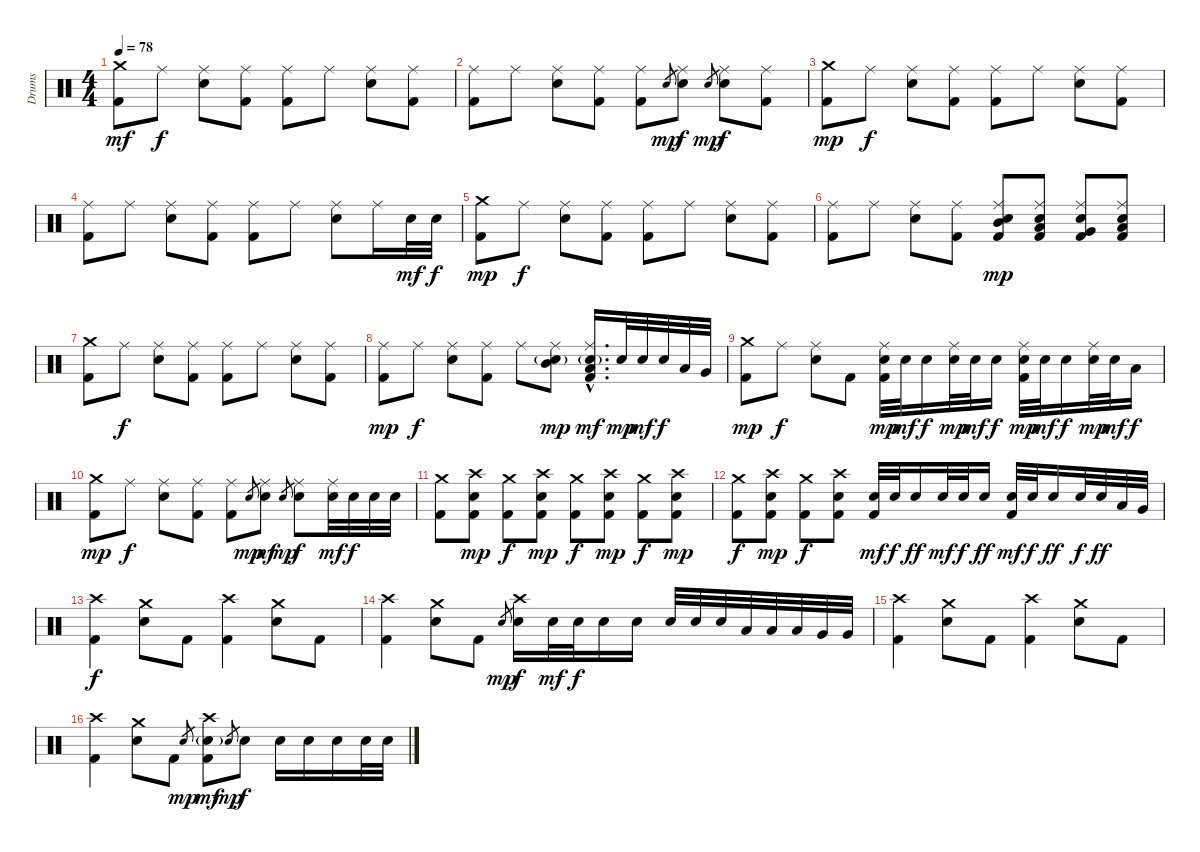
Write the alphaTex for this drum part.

\track ("Drums" "Drums") {instrument percussion}
\staff {score}
\articulation defaults
\ts (4 4)
\tempo 78
\clef neutral
\ks c
("Crash medium (hit)" "Kick (hit) 2").8{dy mf} "Ride (middle)".8{dy f} ("Ride (middle)" "Electric Snare (hit)").8 ("Ride (middle)" "Kick (hit) 2").8 ("Ride (middle)" "Kick (hit) 2").8 "Ride (middle)".8 ("Ride (middle)" "Electric Snare (hit)").8 ("Ride (middle)" "Kick (hit) 2").8 |
("Ride (middle)" "Kick (hit) 2").8 "Ride (middle)".8 ("Ride (middle)" "Electric Snare (hit)").8 ("Ride (middle)" "Kick (hit) 2").8 ("Ride (middle)" "Kick (hit) 2").8 "Electric Snare (hit)".8{gr dy mp} ("Ride (middle)" "Electric Snare (hit)").8{dy f} "Electric Snare (hit)".8{gr dy mp} ("Ride (middle)" "Electric Snare (hit)").8{dy f} ("Ride (middle)" "Kick (hit) 2").8 |
("Crash medium (hit)" "Kick (hit) 2").8{dy mp} "Ride (middle)".8{dy f} ("Ride (middle)" "Electric Snare (hit)").8 ("Ride (middle)" "Kick (hit) 2").8 ("Ride (middle)" "Kick (hit) 2").8 "Ride (middle)".8 ("Ride (middle)" "Electric Snare (hit)").8 ("Ride (middle)" "Kick (hit) 2").8 |
("Ride (middle)" "Kick (hit) 2").8 "Ride (middle)".8 ("Ride (middle)" "Electric Snare (hit)").8 ("Ride (middle)" "Kick (hit) 2").8 ("Ride (middle)" "Kick (hit) 2").8 "Ride (middle)".8 ("Ride (middle)" "Electric Snare (hit)").8 "Ride (middle)".16 "Electric Snare (hit)".32{dy mf} "Electric Snare (hit)".32{dy f} |
("Crash medium (hit)" "Kick (hit) 2").8{dy mp} "Ride (middle)".8{dy f} ("Ride (middle)" "Electric Snare (hit)").8 ("Ride (middle)" "Kick (hit) 2").8 ("Ride (middle)" "Kick (hit) 2").8 "Ride (middle)".8 ("Ride (middle)" "Electric Snare (hit)").8 ("Ride (middle)" "Kick (hit) 2").8 |
("Ride (middle)" "Kick (hit) 2").8{volume 10} "Ride (middle)".8 ("Ride (middle)" "Electric Snare (hit)").8 ("Ride (middle)" "Kick (hit) 2").8 ("Ride (middle)" "Mid Tom (hit)" "Electric Snare (hit)" "Kick (hit) 2").8{dy mp} ("Ride (middle)" "Low Tom (hit)" "Electric Snare (hit)" "Kick (hit) 2").8 ("Ride (middle)" "Very Low Tom (hit)" "Electric Snare (hit)" "Kick (hit) 2").8 ("Ride (middle)" "Low Floor Tom (hit)" "Electric Snare (hit)" "Kick (hit) 2").8 |
("Crash medium (hit)" "Kick (hit) 2").8 "Ride (middle)".8{dy f} ("Ride (middle)" "Electric Snare (hit)").8 ("Ride (middle)" "Kick (hit) 2").8 ("Ride (middle)" "Kick (hit) 2").8 "Ride (middle)".8 ("Ride (middle)" "Electric Snare (hit)").8 ("Ride (middle)" "Kick (hit) 2").8 |
("Ride (middle)" "Kick (hit) 2").8{dy mp volume 12} "Ride (middle)".8{dy f} ("Ride (middle)" "Electric Snare (hit)").8 ("Ride (middle)" "Kick (hit) 2").8 "Ride (middle)".8 ("Ride (middle)" "Mid Tom (hit)" "Electric Snare (hit)"{g}).8{dy mp} ("Ride (middle)"{hac} "Low Tom (hit)"{hac} "Electric Snare (hit)"{g hac} "Kick (hit) 2"{hac}).16{d dy mf} "Electric Snare (hit)".32{dy mp} "Electric Snare (hit)".32{dy mf} "Electric Snare (hit)".32{dy f} "Low Tom (hit)".32 "Very Low Tom (hit)".32 |
("Crash medium (hit)" "Kick (hit) 2").8{dy mp} "Ride (middle)".8{dy f} ("Ride (middle)" "Electric Snare (hit)").8 "Kick (hit) 2".8 ("Ride (middle)" "Electric Snare (hit)" "Kick (hit) 2").32{dy mp} "Electric Snare (hit)".32{dy mf} "Electric Snare (hit)".16{dy f} ("Ride (middle)" "Electric Snare (hit)").32{dy mp} "Electric Snare (hit)".32{dy mf} "Electric Snare (hit)".16{dy f} ("Ride (middle)" "Electric Snare (hit)" "Kick (hit) 2").32{dy mp} "Electric Snare (hit)".32{dy mf} "Electric Snare (hit)".16{dy f} ("Ride (middle)" "Electric Snare (hit)").32{dy mp} "Electric Snare (hit)".32{dy mf} "Low Tom (hit)".16{dy f} |
("Crash medium (hit)" "Kick (hit) 2").8{dy mp} "Ride (middle)".8{dy f} ("Ride (middle)" "Electric Snare (hit)").8 ("Ride (middle)" "Kick (hit) 2").8 ("Ride (middle)" "Kick (hit) 2").8 "Electric Snare (hit)".8{gr dy mp} ("Ride (middle)" "Electric Snare (hit)").8{dy mf} "Electric Snare (hit)".8{gr dy mp} ("Ride (middle)" "Electric Snare (hit)").8{dy f} ("Ride (middle)" "Electric Snare (hit)").32{dy mf} "Electric Snare (hit)".32{dy f} "Electric Snare (hit)".32 "Electric Snare (hit)".32 |
("Crash medium (hit)" "Kick (hit) 2").8 ("Crash high (hit)" "Electric Snare (hit)" "Kick (hit) 2").8{dy mp} ("Crash medium (hit)" "Kick (hit) 2").8{dy f} ("Crash high (hit)" "Electric Snare (hit)" "Kick (hit) 2").8{dy mp} ("Crash medium (hit)" "Kick (hit) 2").8{dy f} ("Crash high (hit)" "Electric Snare (hit)" "Kick (hit) 2").8{dy mp} ("Crash medium (hit)" "Kick (hit) 2").8{dy f} ("Crash high (hit)" "Electric Snare (hit)" "Kick (hit) 2").8{dy mp} |
("Crash medium (hit)" "Kick (hit) 2").8{dy f} ("Crash high (hit)" "Electric Snare (hit)" "Kick (hit) 2").8{dy mp} ("Crash medium (hit)" "Kick (hit) 2").8{dy f} ("Crash high (hit)" "Electric Snare (hit)" "Kick (hit) 2").8 ("Electric Snare (hit)" "Kick (hit) 2").32{dy mf} "Electric Snare (hit)".32{dy f} "Electric Snare (hit)".16{dy ff} "Electric Snare (hit)".32{dy mf} "Electric Snare (hit)".32{dy f} "Electric Snare (hit)".16{dy ff} ("Electric Snare (hit)" "Kick (hit) 2").32{dy mf} "Electric Snare (hit)".32{dy f} "Electric Snare (hit)".16{dy ff} "Electric Snare (hit)".32{dy f} "Electric Snare (hit)".32{dy ff} "Low Tom (hit)".32 "Very Low Tom (hit)".32 |
("Crash high (hit)" "Kick (hit) 2").4{dy f} ("Crash medium (hit)" "Electric Snare (hit)").8 "Kick (hit) 2".8 ("Crash high (hit)" "Kick (hit) 2").4 ("Crash medium (hit)" "Electric Snare (hit)").8 "Kick (hit) 2".8 |
("Crash high (hit)" "Kick (hit) 2").4 ("Crash medium (hit)" "Electric Snare (hit)").8 "Kick (hit) 2".8 "Electric Snare (hit)".8{gr dy mp} ("Crash high (hit)" "Electric Snare (hit)").16{dy f} "Electric Snare (hit)".32{dy mf} "Electric Snare (hit)".32{dy f} "Electric Snare (hit)".16 "Electric Snare (hit)".16 "Electric Snare (hit)".32 "Electric Snare (hit)".32 "Electric Snare (hit)".32 "Low Tom (hit)".32 "Low Tom (hit)".32 "Low Tom (hit)".32 "Very Low Tom (hit)".32 "Very Low Tom (hit)".32 |
("Crash high (hit)" "Kick (hit) 2").4 ("Crash medium (hit)" "Electric Snare (hit)").8 "Kick (hit) 2".8 ("Crash high (hit)" "Kick (hit) 2").4 ("Crash medium (hit)" "Electric Snare (hit)").8 "Kick (hit) 2".8 |
("Crash high (hit)" "Kick (hit) 2").4 ("Crash medium (hit)" "Electric Snare (hit)").8 "Kick (hit) 2".8 "Electric Snare (hit)".8{gr dy mp} ("Crash high (hit)" "Electric Snare (hit)"{g} "Kick (hit) 2").8{dy mf} "Electric Snare (hit)".8{gr dy mp} "Electric Snare (hit)".8{dy f} "Electric Snare (hit)".16 "Electric Snare (hit)".16 "Electric Snare (hit)".16 "Electric Snare (hit)".32 "Electric Snare (hit)".32
